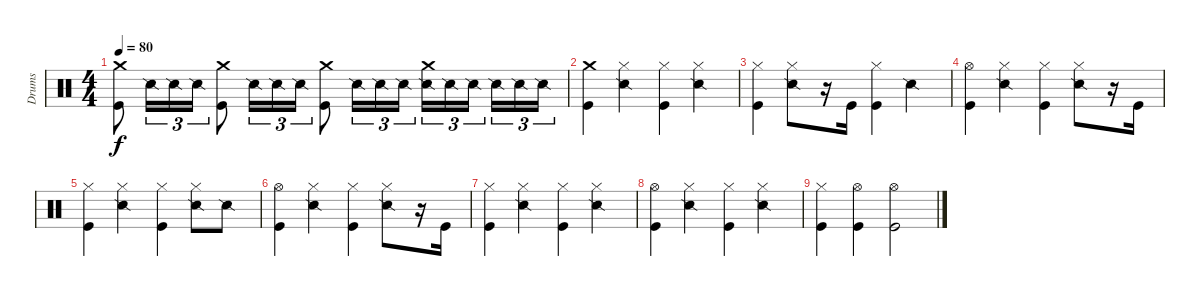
\track ("Drums" "Drums") {instrument percussion}
\staff {score}
\articulation defaults
\ts (4 4)
\tempo 80
\clef neutral
\ks c
("Crash medium (hit)" "Kick (hit)").8{dy f} "Snare (side stick) 2".16{tu (3 2)} "Snare (side stick) 2".16{tu (3 2)} "Snare (side stick) 2".16{tu (3 2)} ("Crash medium (hit)" "Kick (hit)").8 "Snare (side stick) 2".16{tu (3 2)} "Snare (side stick) 2".16{tu (3 2)} "Snare (side stick) 2".16{tu (3 2)} ("Crash medium (hit)" "Kick (hit)").8 "Snare (side stick) 2".16{tu (3 2)} "Snare (side stick) 2".16{tu (3 2)} "Snare (side stick) 2".16{tu (3 2)} ("Crash medium (hit)" "Snare (side stick) 2").16{tu (3 2)} "Snare (side stick) 2".16{tu (3 2)} "Snare (side stick) 2".16{tu (3 2)} "Snare (side stick) 2".16{tu (3 2)} "Snare (side stick) 2".16{tu (3 2)} "Snare (side stick) 2".16{tu (3 2)} |
("Crash medium (hit)" "Kick (hit)").4 ("Hi-Hat (closed)" "Snare (side stick) 2").4 ("Hi-Hat (closed)" "Kick (hit)").4 ("Hi-Hat (closed)" "Snare (side stick) 2").4 |
("Hi-Hat (closed)" "Kick (hit)").4 ("Hi-Hat (closed)" "Snare (side stick) 2").8 r.16 "Kick (hit)".16 ("Hi-Hat (closed)" "Kick (hit)").4 "Snare (side stick) 2".4 |
("Hi-Hat (open)" "Kick (hit)").4 ("Hi-Hat (closed)" "Snare (side stick) 2").4 ("Hi-Hat (closed)" "Kick (hit)").4 ("Hi-Hat (closed)" "Snare (side stick) 2").8 r.16 "Kick (hit)".16 |
("Hi-Hat (closed)" "Kick (hit)").4 ("Hi-Hat (closed)" "Snare (side stick) 2").4 ("Hi-Hat (closed)" "Kick (hit)").4 ("Hi-Hat (closed)" "Snare (side stick) 2").8 "Snare (side stick) 2".8 |
("Hi-Hat (open)" "Kick (hit)").4 ("Hi-Hat (closed)" "Snare (side stick) 2").4 ("Hi-Hat (closed)" "Kick (hit)").4 ("Hi-Hat (closed)" "Snare (side stick) 2").8 r.16 "Kick (hit)".16 |
("Hi-Hat (closed)" "Kick (hit)").4 ("Hi-Hat (closed)" "Snare (side stick) 2").4 ("Hi-Hat (closed)" "Kick (hit)").4 ("Hi-Hat (closed)" "Snare (side stick) 2").4 |
("Hi-Hat (open)" "Kick (hit)").4 ("Hi-Hat (closed)" "Snare (side stick) 2").4 ("Hi-Hat (closed)" "Kick (hit)").4 ("Hi-Hat (closed)" "Snare (side stick) 2").4 |
("Hi-Hat (closed)" "Kick (hit)").4 ("Hi-Hat (open)" "Kick (hit)").4 ("Hi-Hat (open)" "Kick (hit)").2
